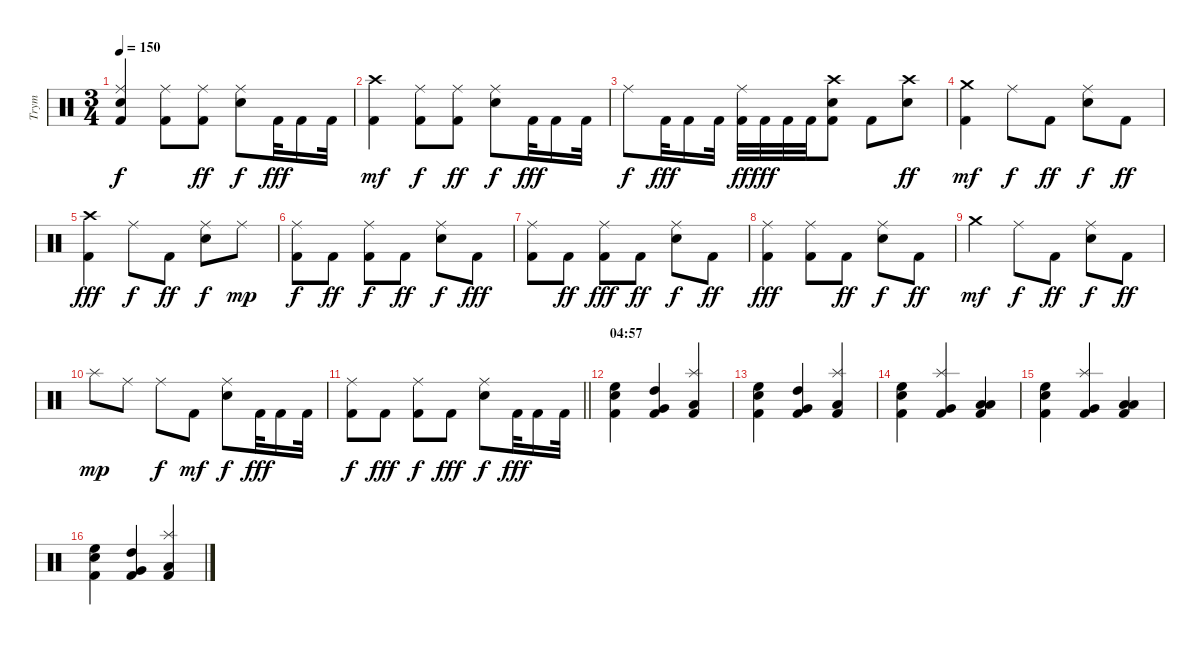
\track ("Trym" "Trym") {instrument percussion}
\staff {score}
\articulation defaults
\ts (3 4)
\tempo 150
\clef neutral
\ks c
("Snare (hit) 2" "Ride (middle)" "Kick (hit) 2").4{dy f} ("Ride (middle)" "Kick (hit) 2").8 ("Ride (middle)" "Kick (hit) 2").8{dy ff} ("Snare (hit) 2" "Ride (middle)").8{dy f} "Kick (hit) 2".32{dy fff} "Kick (hit) 2".16 "Kick (hit) 2".32 |
("Crash high (hit)" "Kick (hit) 2").4{dy mf} ("Ride (middle)" "Kick (hit) 2").8{dy f} ("Ride (middle)" "Kick (hit) 2").8{dy ff} ("Snare (hit) 2" "Ride (middle)").8{dy f} "Kick (hit) 2".32{dy fff} "Kick (hit) 2".16 "Kick (hit) 2".32 |
"Ride (middle)".8{dy f} "Kick (hit) 2".32{dy fff} "Kick (hit) 2".16 "Kick (hit) 2".32 ("Ride (middle)" "Kick (hit) 2").32{dy ff} "Kick (hit) 2".32{dy fff} "Kick (hit) 2".32 "Kick (hit) 2".32 ("Crash high (hit)" "Snare (hit) 2" "Kick (hit) 2").8 "Kick (hit) 2".8 ("Crash high (hit)" "Snare (hit) 2").8{dy ff} |
("Crash medium (hit)" "Kick (hit) 2").4{dy mf} "Ride (middle)".8{dy f} "Kick (hit) 2".8{dy ff} ("Snare (hit) 2" "Ride (middle)").8{dy f} "Kick (hit) 2".8{dy ff} |
("Crash high (hit)" "Kick (hit) 2").4{dy fff} "Ride (middle)".8{dy f} "Kick (hit) 2".8{dy ff} ("Snare (hit) 2" "Ride (middle)").8{dy f} "Ride (middle)".8{dy mp} |
("Ride (middle)" "Kick (hit) 2").8{dy f} "Kick (hit) 2".8{dy ff} ("Ride (middle)" "Kick (hit) 2").8{dy f} "Kick (hit) 2".8{dy ff} ("Snare (hit) 2" "Ride (middle)").8{dy f} "Kick (hit) 2".8{dy fff} |
("Ride (middle)" "Kick (hit) 2").8 "Kick (hit) 2".8{dy ff} ("Ride (middle)" "Kick (hit) 2").8{dy fff} "Kick (hit) 2".8{dy ff} ("Snare (hit) 2" "Ride (middle)").8{dy f} "Kick (hit) 2".8{dy ff} |
("Ride (middle)" "Kick (hit) 2").4{dy fff} ("Ride (middle)" "Kick (hit) 2").8 "Kick (hit) 2".8{dy ff} ("Snare (hit) 2" "Ride (middle)").8{dy f} "Kick (hit) 2".8{dy ff} |
"Crash medium (hit)".4{dy mf} "Ride (middle)".8{dy f} "Kick (hit) 2".8{dy ff} ("Snare (hit) 2" "Ride (middle)").8{dy f} "Kick (hit) 2".8{dy ff} |
"Splash (hit)".8{dy mp} "Ride (middle)".8 "Ride (middle)".8{dy f} "Kick (hit) 2".8{dy mf} ("Snare (hit) 2" "Ride (middle)").8{dy f} "Kick (hit) 2".32{dy fff} "Kick (hit) 2".16 "Kick (hit) 2".32 |
\barLineRight lightlight
("Ride (middle)" "Kick (hit) 2").8{dy f} "Kick (hit) 2".8{dy fff} ("Ride (middle)" "Kick (hit) 2").8{dy f} "Kick (hit) 2".8{dy fff} ("Snare (hit) 2" "Ride (middle)").8{dy f} "Kick (hit) 2".32{dy fff} "Kick (hit) 2".16 "Kick (hit) 2".32 |
\section ("" "04:57")
("Snare (hit) 2" "High Floor Tom (hit)" "Kick (hit) 2").4 ("High Tom (hit)" "Very Low Tom (hit)" "Kick (hit) 2").4 ("Splash (hit)" "Low Floor Tom (hit)" "Kick (hit) 2").4 |
("Snare (hit) 2" "High Floor Tom (hit)" "Kick (hit) 2").4 ("High Tom (hit)" "Very Low Tom (hit)" "Kick (hit) 2").4 ("Splash (hit)" "Low Floor Tom (hit)" "Kick (hit) 2").4 |
("Snare (hit) 2" "High Floor Tom (hit)" "Kick (hit) 2").4 ("Splash (hit)" "Very Low Tom (hit)" "Kick (hit) 2").4 ("Low Floor Tom (hit)" "Low Floor Tom (hit)" "Kick (hit) 2").4 |
("Snare (hit) 2" "High Floor Tom (hit)" "Kick (hit) 2").4 ("Splash (hit)" "Very Low Tom (hit)" "Kick (hit) 2").4 ("Low Floor Tom (hit)" "Low Floor Tom (hit)" "Kick (hit) 2").4 |
("Snare (hit) 2" "High Floor Tom (hit)" "Kick (hit) 2").4 ("High Tom (hit)" "Very Low Tom (hit)" "Kick (hit) 2").4 ("Splash (hit)" "Low Floor Tom (hit)" "Kick (hit) 2").4
